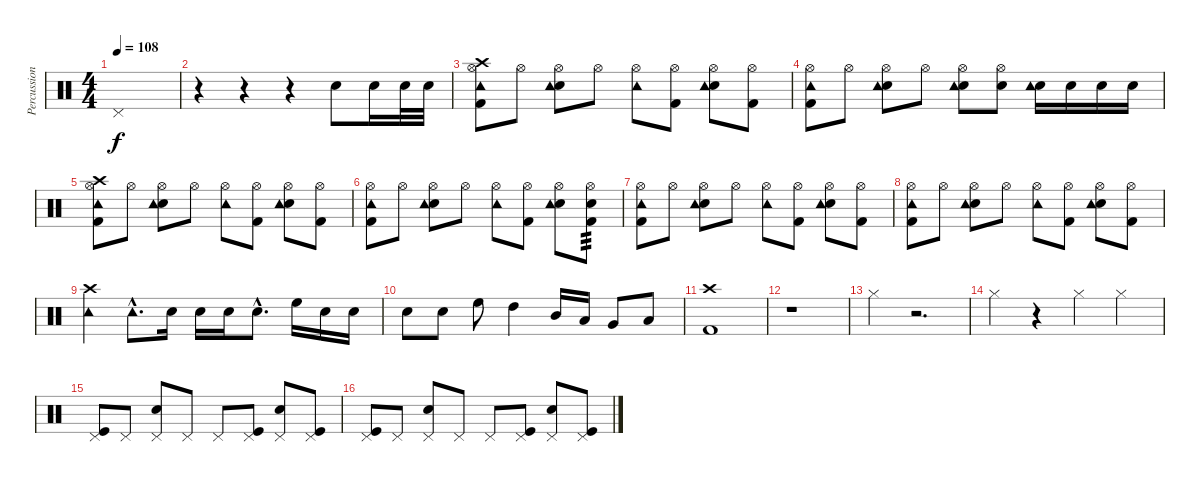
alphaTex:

\track ("Percussion" "Percussion") {instrument percussion}
\staff {score}
\articulation defaults
\ts (4 4)
\tempo 108
\clef neutral
\ks c "Pedal Hi-Hat (hit)".1{dy f}
|
r.4 r.4 r.4 "Electric Snare (hit)".8 "Electric Snare (hit)".16 "Electric Snare (hit)".32 "Electric Snare (hit)".32 |
("Kick (hit) 2" "Hi-Hat (open)" "Tambourine (hit)" "Crash high (hit)").8 "Hi-Hat (open)".8 ("Hi-Hat (open)" "Electric Snare (hit)" "Tambourine (hit)").8 "Hi-Hat (open)".8 ("Hi-Hat (open)" "Tambourine (hit)").8 ("Hi-Hat (open)" "Kick (hit) 2").8 ("Hi-Hat (open)" "Electric Snare (hit)" "Tambourine (hit)").8 ("Hi-Hat (open)" "Kick (hit) 2").8 |
("Kick (hit) 2" "Hi-Hat (open)" "Tambourine (hit)").8 "Hi-Hat (open)".8 ("Hi-Hat (open)" "Electric Snare (hit)" "Tambourine (hit)").8 "Hi-Hat (open)".8 ("Hi-Hat (open)" "Electric Snare (hit)" "Tambourine (hit)").8 ("Hi-Hat (open)" "Electric Snare (hit)").8 ("Electric Snare (hit)" "Tambourine (hit)").16 "Electric Snare (hit)".16 "Electric Snare (hit)".16 "Electric Snare (hit)".16 |
("Kick (hit) 2" "Hi-Hat (open)" "Tambourine (hit)" "Crash high (hit)").8 "Hi-Hat (open)".8 ("Hi-Hat (open)" "Electric Snare (hit)" "Tambourine (hit)").8 "Hi-Hat (open)".8 ("Hi-Hat (open)" "Tambourine (hit)").8 ("Hi-Hat (open)" "Kick (hit) 2").8 ("Hi-Hat (open)" "Electric Snare (hit)" "Tambourine (hit)").8 ("Hi-Hat (open)" "Kick (hit) 2").8 |
("Kick (hit) 2" "Hi-Hat (open)" "Tambourine (hit)").8 "Hi-Hat (open)".8 ("Hi-Hat (open)" "Electric Snare (hit)" "Tambourine (hit)").8 "Hi-Hat (open)".8 ("Hi-Hat (open)" "Tambourine (hit)").8 ("Hi-Hat (open)" "Kick (hit) 2").8 ("Hi-Hat (open)" "Electric Snare (hit)" "Tambourine (hit)").8 ("Hi-Hat (open)" "Kick (hit) 2" "Electric Snare (hit)").8{tp 3} |
("Kick (hit) 2" "Hi-Hat (open)" "Tambourine (hit)").8 "Hi-Hat (open)".8 ("Hi-Hat (open)" "Electric Snare (hit)" "Tambourine (hit)").8 "Hi-Hat (open)".8 ("Hi-Hat (open)" "Tambourine (hit)").8 ("Hi-Hat (open)" "Kick (hit) 2").8 ("Hi-Hat (open)" "Electric Snare (hit)" "Tambourine (hit)").8 ("Hi-Hat (open)" "Kick (hit) 2").8 |
("Kick (hit) 2" "Hi-Hat (open)" "Tambourine (hit)").8 "Hi-Hat (open)".8 ("Hi-Hat (open)" "Electric Snare (hit)" "Tambourine (hit)").8 "Hi-Hat (open)".8 ("Hi-Hat (open)" "Tambourine (hit)").8 ("Hi-Hat (open)" "Kick (hit) 2").8 ("Hi-Hat (open)" "Electric Snare (hit)" "Tambourine (hit)").8 ("Hi-Hat (open)" "Kick (hit) 2").8 |
("Crash high (hit)" "Tambourine (hit)").4 "Tambourine (hit)"{hac}.8{d} "Electric Snare (hit)".16 "Snare (hit) 2".16 "Electric Snare (hit)".16 "Electric Snare (hit)"{hac}.8{d} "High Floor Tom (hit)".16 "Electric Snare (hit)".16 "Electric Snare (hit)".16 |
"Electric Snare (hit)".8 "Electric Snare (hit)".8 "High Floor Tom (hit)".8 "High Tom (hit)".4 "Mid Tom (hit)".16 "Low Tom (hit)".16 "Very Low Tom (hit)".8 "Low Floor Tom (hit)".8 |
("Kick (hit) 2" "Crash high (hit)").1 |
r.1 |
"Hi-Hat (closed)".4 r.2{d} |
"Hi-Hat (closed)".4 r.4 "Hi-Hat (closed)".4 "Hi-Hat (closed)".4 |
("Kick (hit)" "Pedal Hi-Hat (hit)").8 "Pedal Hi-Hat (hit)".8 ("Pedal Hi-Hat (hit)" "Electric Snare (hit)").8 "Pedal Hi-Hat (hit)".8 "Pedal Hi-Hat (hit)".8 ("Pedal Hi-Hat (hit)" "Kick (hit)").8 ("Pedal Hi-Hat (hit)" "Electric Snare (hit)").8 ("Pedal Hi-Hat (hit)" "Kick (hit)").8 |
("Kick (hit)" "Pedal Hi-Hat (hit)").8 "Pedal Hi-Hat (hit)".8 ("Pedal Hi-Hat (hit)" "Electric Snare (hit)").8 "Pedal Hi-Hat (hit)".8 "Pedal Hi-Hat (hit)".8 ("Pedal Hi-Hat (hit)" "Kick (hit)").8 ("Pedal Hi-Hat (hit)" "Electric Snare (hit)").8 ("Pedal Hi-Hat (hit)" "Kick (hit)").8
